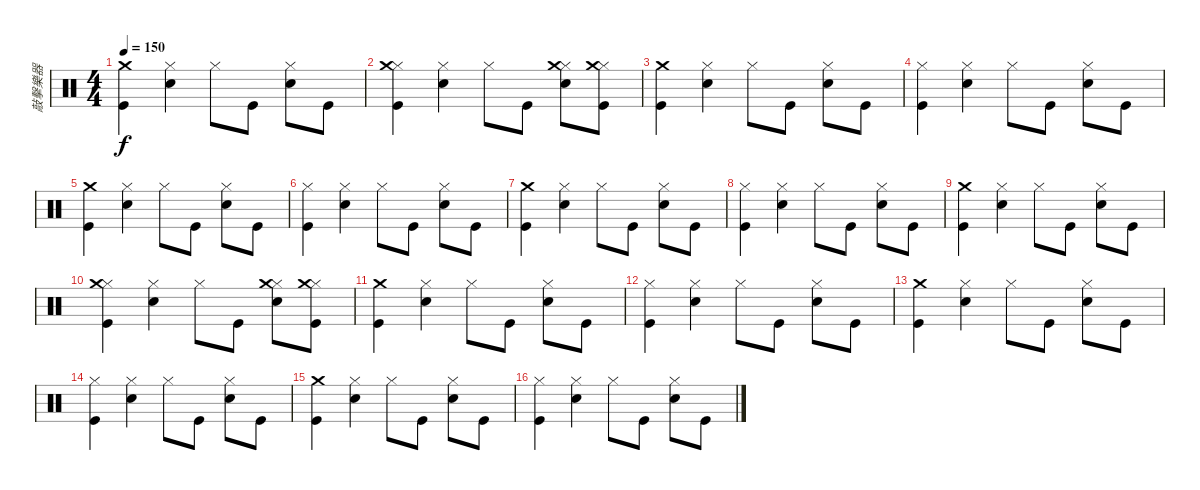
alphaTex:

\track ("敲擊樂器" "敲擊樂器") {instrument percussion}
\staff {score}
\articulation defaults
\ts (4 4)
\tempo 150
\clef neutral
\ks c
("Kick (hit)" "Crash medium (hit)").4{dy f} ("Snare (hit) 2" "Hi-Hat (closed)").4 "Hi-Hat (closed)".8 "Kick (hit)".8 ("Snare (hit) 2" "Hi-Hat (closed)").8 "Kick (hit)".8 |
("Kick (hit)" "Hi-Hat (closed)" "Crash medium (hit)").4 ("Snare (hit) 2" "Hi-Hat (closed)").4 "Hi-Hat (closed)".8 "Kick (hit)".8 ("Snare (hit) 2" "Hi-Hat (closed)" "Crash medium (hit)").8 ("Kick (hit)" "Hi-Hat (closed)" "Crash medium (hit)").8 |
("Kick (hit)" "Crash medium (hit)").4 ("Snare (hit) 2" "Hi-Hat (closed)").4 "Hi-Hat (closed)".8 "Kick (hit)".8 ("Snare (hit) 2" "Hi-Hat (closed)").8 "Kick (hit)".8 |
("Kick (hit)" "Hi-Hat (closed)").4 ("Snare (hit) 2" "Hi-Hat (closed)").4 "Hi-Hat (closed)".8 "Kick (hit)".8 ("Snare (hit) 2" "Hi-Hat (closed)").8 "Kick (hit)".8 |
("Kick (hit)" "Crash medium (hit)").4 ("Snare (hit) 2" "Hi-Hat (closed)").4 "Hi-Hat (closed)".8 "Kick (hit)".8 ("Snare (hit) 2" "Hi-Hat (closed)").8 "Kick (hit)".8 |
("Kick (hit)" "Hi-Hat (closed)").4 ("Snare (hit) 2" "Hi-Hat (closed)").4 "Hi-Hat (closed)".8 "Kick (hit)".8 ("Snare (hit) 2" "Hi-Hat (closed)").8 "Kick (hit)".8 |
("Kick (hit)" "Crash medium (hit)").4 ("Snare (hit) 2" "Hi-Hat (closed)").4 "Hi-Hat (closed)".8 "Kick (hit)".8 ("Snare (hit) 2" "Hi-Hat (closed)").8 "Kick (hit)".8 |
("Kick (hit)" "Hi-Hat (closed)").4 ("Snare (hit) 2" "Hi-Hat (closed)").4 "Hi-Hat (closed)".8 "Kick (hit)".8 ("Snare (hit) 2" "Hi-Hat (closed)").8 "Kick (hit)".8 |
("Kick (hit)" "Crash medium (hit)").4 ("Snare (hit) 2" "Hi-Hat (closed)").4 "Hi-Hat (closed)".8 "Kick (hit)".8 ("Snare (hit) 2" "Hi-Hat (closed)").8 "Kick (hit)".8 |
("Kick (hit)" "Hi-Hat (closed)" "Crash medium (hit)").4 ("Snare (hit) 2" "Hi-Hat (closed)").4 "Hi-Hat (closed)".8 "Kick (hit)".8 ("Snare (hit) 2" "Hi-Hat (closed)" "Crash medium (hit)").8 ("Kick (hit)" "Hi-Hat (closed)" "Crash medium (hit)").8 |
("Kick (hit)" "Crash medium (hit)").4 ("Snare (hit) 2" "Hi-Hat (closed)").4 "Hi-Hat (closed)".8 "Kick (hit)".8 ("Snare (hit) 2" "Hi-Hat (closed)").8 "Kick (hit)".8 |
("Kick (hit)" "Hi-Hat (closed)").4 ("Snare (hit) 2" "Hi-Hat (closed)").4 "Hi-Hat (closed)".8 "Kick (hit)".8 ("Snare (hit) 2" "Hi-Hat (closed)").8 "Kick (hit)".8 |
("Kick (hit)" "Crash medium (hit)").4 ("Snare (hit) 2" "Hi-Hat (closed)").4 "Hi-Hat (closed)".8 "Kick (hit)".8 ("Snare (hit) 2" "Hi-Hat (closed)").8 "Kick (hit)".8 |
("Kick (hit)" "Hi-Hat (closed)").4 ("Snare (hit) 2" "Hi-Hat (closed)").4 "Hi-Hat (closed)".8 "Kick (hit)".8 ("Snare (hit) 2" "Hi-Hat (closed)").8 "Kick (hit)".8 |
("Kick (hit)" "Crash medium (hit)").4 ("Snare (hit) 2" "Hi-Hat (closed)").4 "Hi-Hat (closed)".8 "Kick (hit)".8 ("Snare (hit) 2" "Hi-Hat (closed)").8 "Kick (hit)".8 |
("Kick (hit)" "Hi-Hat (closed)").4 ("Snare (hit) 2" "Hi-Hat (closed)").4 "Hi-Hat (closed)".8 "Kick (hit)".8 ("Snare (hit) 2" "Hi-Hat (closed)").8 "Kick (hit)".8
